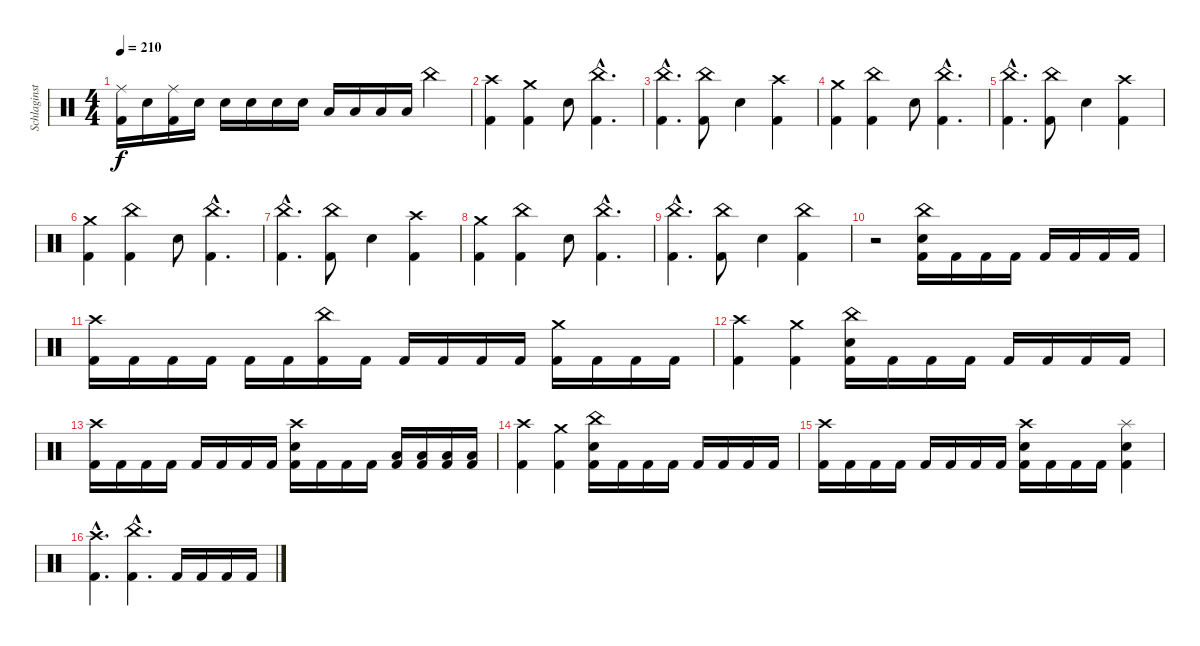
\track ("Schlaginstrumente - Auswahl" "Schlaginst") {instrument percussion}
\staff {score}
\articulation defaults
\ts (4 4)
\tempo 210
\clef neutral
\ks c
("Ride (middle)" "Kick (hit) 2").16{dy f} "Snare (hit) 2".16 ("Ride (middle)" "Kick (hit) 2").16 "Snare (hit) 2".16 "Snare (hit) 2".16 "Snare (hit) 2".16 "Snare (hit) 2".16 "Snare (hit) 2".16 "Low Tom (hit)".16 "Low Tom (hit)".16 "Low Tom (hit)".16 "Low Tom (hit)".16 "China (hit)".4 |
("Crash high (hit)" "Kick (hit) 2").4 ("Crash medium (hit)" "Kick (hit) 2").4 "Snare (hit) 2".8 ("Kick (hit) 2"{hac} "China (hit)"{hac}).4{d} |
("China (hit)"{hac} "Kick (hit) 2"{hac}).4{d} ("China (hit)" "Kick (hit) 2").8 "Snare (hit) 2".4 ("Crash high (hit)" "Kick (hit) 2").4 |
("Crash medium (hit)" "Kick (hit) 2").4 ("China (hit)" "Kick (hit) 2").4 "Snare (hit) 2".8 ("Kick (hit) 2"{hac} "China (hit)"{hac}).4{d} |
("China (hit)"{hac} "Kick (hit) 2"{hac}).4{d} ("China (hit)" "Kick (hit) 2").8 "Snare (hit) 2".4 ("Crash high (hit)" "Kick (hit) 2").4 |
("Crash medium (hit)" "Kick (hit) 2").4 ("China (hit)" "Kick (hit) 2").4 "Snare (hit) 2".8 ("Kick (hit) 2"{hac} "China (hit)"{hac}).4{d} |
("China (hit)"{hac} "Kick (hit) 2"{hac}).4{d} ("China (hit)" "Kick (hit) 2").8 "Snare (hit) 2".4 ("Crash high (hit)" "Kick (hit) 2").4 |
("Crash medium (hit)" "Kick (hit) 2").4 ("China (hit)" "Kick (hit) 2").4 "Snare (hit) 2".8 ("Kick (hit) 2"{hac} "China (hit)"{hac}).4{d} |
("China (hit)"{hac} "Kick (hit) 2"{hac}).4{d} ("China (hit)" "Kick (hit) 2").8 "Snare (hit) 2".4 ("China (hit)" "Kick (hit) 2").4 |
r.2 ("China (hit)" "Snare (hit) 2" "Kick (hit) 2").16 "Kick (hit) 2".16 "Kick (hit) 2".16 "Kick (hit) 2".16 "Kick (hit) 2".16 "Kick (hit) 2".16 "Kick (hit) 2".16 "Kick (hit) 2".16 |
("Crash high (hit)" "Kick (hit) 2").16 "Kick (hit) 2".16 "Kick (hit) 2".16 "Kick (hit) 2".16 "Kick (hit) 2".16 "Kick (hit) 2".16 ("China (hit)" "Kick (hit) 2").16 "Kick (hit) 2".16 "Kick (hit) 2".16 "Kick (hit) 2".16 "Kick (hit) 2".16 "Kick (hit) 2".16 ("Crash medium (hit)" "Kick (hit) 2").16 "Kick (hit) 2".16 "Kick (hit) 2".16 "Kick (hit) 2".16 |
("Crash high (hit)" "Kick (hit) 2").4 ("Crash medium (hit)" "Kick (hit) 2").4 ("China (hit)" "Snare (hit) 2" "Kick (hit) 2").16 "Kick (hit) 2".16 "Kick (hit) 2".16 "Kick (hit) 2".16 "Kick (hit) 2".16 "Kick (hit) 2".16 "Kick (hit) 2".16 "Kick (hit) 2".16 |
("Crash high (hit)" "Kick (hit) 2").16 "Kick (hit) 2".16 "Kick (hit) 2".16 "Kick (hit) 2".16 "Kick (hit) 2".16 "Kick (hit) 2".16 "Kick (hit) 2".16 "Kick (hit) 2".16 ("Crash high (hit)" "Snare (hit) 2" "Kick (hit) 2").16 "Kick (hit) 2".16 "Kick (hit) 2".16 "Kick (hit) 2".16 ("Low Tom (hit)" "Kick (hit) 2").16 ("Low Tom (hit)" "Kick (hit) 2").16 ("Low Floor Tom (hit)" "Kick (hit) 2").16 ("Low Floor Tom (hit)" "Kick (hit) 2").16 |
("Crash high (hit)" "Kick (hit) 2").4 ("Crash medium (hit)" "Kick (hit) 2").4 ("China (hit)" "Snare (hit) 2" "Kick (hit) 2").16 "Kick (hit) 2".16 "Kick (hit) 2".16 "Kick (hit) 2".16 "Kick (hit) 2".16 "Kick (hit) 2".16 "Kick (hit) 2".16 "Kick (hit) 2".16 |
("Crash high (hit)" "Kick (hit) 2").16 "Kick (hit) 2".16 "Kick (hit) 2".16 "Kick (hit) 2".16 "Kick (hit) 2".16 "Kick (hit) 2".16 "Kick (hit) 2".16 "Kick (hit) 2".16 ("Crash high (hit)" "Snare (hit) 2" "Kick (hit) 2").16 "Kick (hit) 2".16 "Kick (hit) 2".16 "Kick (hit) 2".16 ("Splash (hit)" "Snare (hit) 2" "Kick (hit) 2").4 |
("Crash high (hit)"{hac} "Kick (hit) 2"{hac}).4{d} ("China (hit)"{hac} "Kick (hit) 2"{hac}).4{d} "Kick (hit) 2".16 "Kick (hit) 2".16 "Kick (hit) 2".16 "Kick (hit) 2".16
